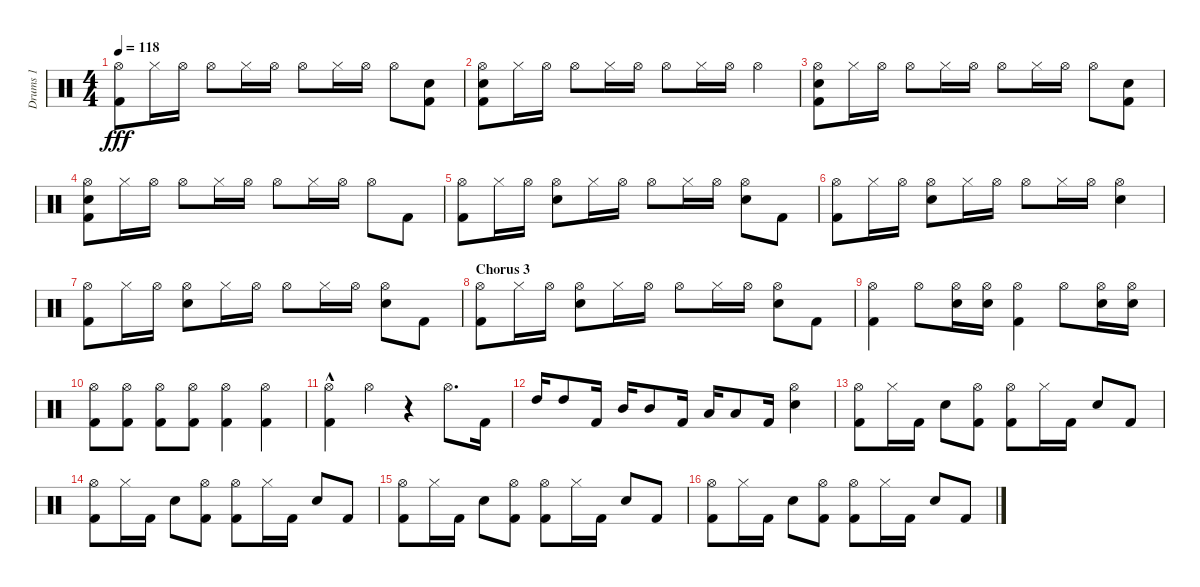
\track ("Drums 1" "Drums 1") {instrument percussion}
\staff {score}
\articulation defaults
\ts (4 4)
\tempo 118
\clef neutral
\ks c
("Hi-Hat (open)" "Kick (hit) 2").8{dy fff} "Hi-Hat (closed)".16 "Hi-Hat (open)".16 "Hi-Hat (open)".8 "Hi-Hat (closed)".16 "Hi-Hat (open)".16 "Hi-Hat (open)".8 "Hi-Hat (closed)".16 "Hi-Hat (open)".16 "Hi-Hat (open)".8 ("Kick (hit) 2" "Electric Snare (hit)").8 |
("Hi-Hat (open)" "Kick (hit) 2" "Electric Snare (hit)").8 "Hi-Hat (closed)".16 "Hi-Hat (open)".16 "Hi-Hat (open)".8 "Hi-Hat (closed)".16 "Hi-Hat (open)".16 "Hi-Hat (open)".8 "Hi-Hat (closed)".16 "Hi-Hat (open)".16 "Hi-Hat (open)".4 |
("Hi-Hat (open)" "Kick (hit) 2" "Electric Snare (hit)").8 "Hi-Hat (closed)".16 "Hi-Hat (open)".16 "Hi-Hat (open)".8 "Hi-Hat (closed)".16 "Hi-Hat (open)".16 "Hi-Hat (open)".8 "Hi-Hat (closed)".16 "Hi-Hat (open)".16 "Hi-Hat (open)".8 ("Kick (hit) 2" "Electric Snare (hit)").8 |
("Hi-Hat (open)" "Kick (hit) 2" "Electric Snare (hit)").8 "Hi-Hat (closed)".16 "Hi-Hat (open)".16 "Hi-Hat (open)".8 "Hi-Hat (closed)".16 "Hi-Hat (open)".16 "Hi-Hat (open)".8 "Hi-Hat (closed)".16 "Hi-Hat (open)".16 "Hi-Hat (open)".8 "Kick (hit) 2".8 |
("Hi-Hat (open)" "Kick (hit) 2").8 "Hi-Hat (closed)".16 "Hi-Hat (open)".16 ("Hi-Hat (open)" "Electric Snare (hit)").8 "Hi-Hat (closed)".16 "Hi-Hat (open)".16 "Hi-Hat (open)".8 "Hi-Hat (closed)".16 "Hi-Hat (open)".16 ("Hi-Hat (open)" "Electric Snare (hit)").8 "Kick (hit) 2".8 |
("Hi-Hat (open)" "Kick (hit) 2").8 "Hi-Hat (closed)".16 "Hi-Hat (open)".16 ("Hi-Hat (open)" "Electric Snare (hit)").8 "Hi-Hat (closed)".16 "Hi-Hat (open)".16 "Hi-Hat (open)".8 "Hi-Hat (closed)".16 "Hi-Hat (open)".16 ("Hi-Hat (open)" "Electric Snare (hit)").4 |
("Hi-Hat (open)" "Kick (hit) 2").8 "Hi-Hat (closed)".16 "Hi-Hat (open)".16 ("Hi-Hat (open)" "Electric Snare (hit)").8 "Hi-Hat (closed)".16 "Hi-Hat (open)".16 "Hi-Hat (open)".8 "Hi-Hat (closed)".16 "Hi-Hat (open)".16 ("Hi-Hat (open)" "Electric Snare (hit)").8 "Kick (hit) 2".8 |
\section ("" "Chorus 3")
("Hi-Hat (open)" "Kick (hit) 2").8 "Hi-Hat (closed)".16 "Hi-Hat (open)".16 ("Hi-Hat (open)" "Electric Snare (hit)").8 "Hi-Hat (closed)".16 "Hi-Hat (open)".16 "Hi-Hat (open)".8 "Hi-Hat (closed)".16 "Hi-Hat (open)".16 ("Hi-Hat (open)" "Electric Snare (hit)").8 "Kick (hit) 2".8 |
("Hi-Hat (open)" "Kick (hit) 2").4 "Hi-Hat (open)".8 ("Hi-Hat (open)" "Electric Snare (hit)").16 ("Hi-Hat (open)" "Electric Snare (hit)").16 ("Hi-Hat (open)" "Kick (hit) 2").4 "Hi-Hat (open)".8 ("Hi-Hat (open)" "Electric Snare (hit)").16 ("Hi-Hat (open)" "Electric Snare (hit)").16 |
("Hi-Hat (open)" "Kick (hit) 2").8 ("Hi-Hat (open)" "Kick (hit) 2").8 ("Hi-Hat (open)" "Kick (hit) 2").8 ("Hi-Hat (open)" "Kick (hit) 2").8 ("Hi-Hat (open)" "Kick (hit) 2").4 ("Hi-Hat (open)" "Kick (hit) 2").4 |
("Hi-Hat (open)" "Kick (hit) 2"{hac}).4 "Hi-Hat (open)".4 r.4 "Hi-Hat (open)".8{d} "Kick (hit) 2".16 |
"High Tom (hit)".16 "High Tom (hit)".8 "Kick (hit) 2".16 "Mid Tom (hit)".16 "Mid Tom (hit)".8 "Kick (hit) 2".16 "Low Tom (hit)".16 "Low Tom (hit)".8 "Kick (hit) 2".16 ("Hi-Hat (open)" "Electric Snare (hit)").4 |
("Hi-Hat (open)" "Kick (hit) 2").8 "Hi-Hat (closed)".16 "Kick (hit) 2".16 "Electric Snare (hit)".8 ("Hi-Hat (open)" "Kick (hit) 2").8 ("Hi-Hat (open)" "Kick (hit) 2").8 "Hi-Hat (closed)".16 "Kick (hit) 2".16 "Electric Snare (hit)".8 "Kick (hit) 2".8 |
("Hi-Hat (open)" "Kick (hit) 2").8 "Hi-Hat (closed)".16 "Kick (hit) 2".16 "Electric Snare (hit)".8 ("Hi-Hat (open)" "Kick (hit) 2").8 ("Hi-Hat (open)" "Kick (hit) 2").8 "Hi-Hat (closed)".16 "Kick (hit) 2".16 "Electric Snare (hit)".8 "Kick (hit) 2".8 |
("Hi-Hat (open)" "Kick (hit) 2").8 "Hi-Hat (closed)".16 "Kick (hit) 2".16 "Electric Snare (hit)".8 ("Hi-Hat (open)" "Kick (hit) 2").8 ("Hi-Hat (open)" "Kick (hit) 2").8 "Hi-Hat (closed)".16 "Kick (hit) 2".16 "Electric Snare (hit)".8 "Kick (hit) 2".8 |
("Hi-Hat (open)" "Kick (hit) 2").8 "Hi-Hat (closed)".16 "Kick (hit) 2".16 "Electric Snare (hit)".8 ("Hi-Hat (open)" "Kick (hit) 2").8 ("Hi-Hat (open)" "Kick (hit) 2").8 "Hi-Hat (closed)".16 "Kick (hit) 2".16 "Electric Snare (hit)".8 "Kick (hit) 2".8
